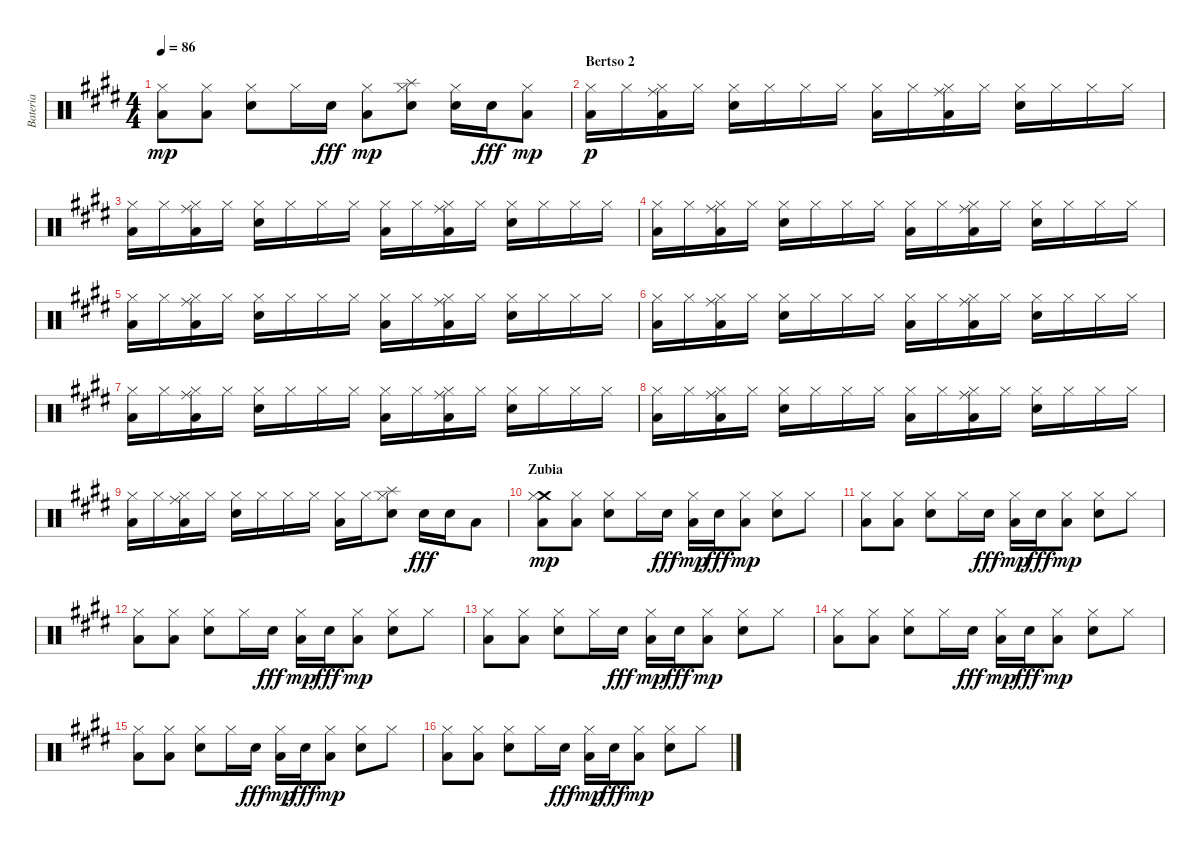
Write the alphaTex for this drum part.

\track ("Bateria" "Bateria") {instrument percussion}
\staff {score}
\articulation defaults
\ts (4 4)
\tempo 86
\clef neutral
\ks e
("Low Floor Tom (hit)" "Hi-Hat (closed)").8{dy mp} ("Low Floor Tom (hit)" "Hi-Hat (closed)").8 ("Electric Snare (hit)" "Hi-Hat (closed)").8 "Hi-Hat (closed)".16 "Electric Snare (hit)".16{dy fff} ("Low Floor Tom (hit)" "Hi-Hat (closed)").8{dy mp} ("Electric Snare (hit)" "Splash (hit)" "Hi-Hat (closed)").8 ("Electric Snare (hit)" "Hi-Hat (closed)").16 "Electric Snare (hit)".16{dy fff} ("Low Floor Tom (hit)" "Hi-Hat (closed)").8{dy mp} |
\section ("" "Bertso 2")
("Low Floor Tom (hit)" "Hi-Hat (closed)").16{dy p} "Hi-Hat (closed)".16 ("Low Floor Tom (hit)" "Ride (middle)" "Hi-Hat (closed)").16 "Hi-Hat (closed)".16 ("Electric Snare (hit)" "Hi-Hat (closed)").16 "Hi-Hat (closed)".16 "Hi-Hat (closed)".16 "Hi-Hat (closed)".16 ("Low Floor Tom (hit)" "Hi-Hat (closed)").16 "Hi-Hat (closed)".16 ("Low Floor Tom (hit)" "Ride (middle)" "Hi-Hat (closed)").16 "Hi-Hat (closed)".16 ("Electric Snare (hit)" "Hi-Hat (closed)").16 "Hi-Hat (closed)".16 "Hi-Hat (closed)".16 "Hi-Hat (closed)".16 |
("Low Floor Tom (hit)" "Hi-Hat (closed)").16 "Hi-Hat (closed)".16 ("Low Floor Tom (hit)" "Ride (middle)" "Hi-Hat (closed)").16 "Hi-Hat (closed)".16 ("Electric Snare (hit)" "Hi-Hat (closed)").16 "Hi-Hat (closed)".16 "Hi-Hat (closed)".16 "Hi-Hat (closed)".16 ("Low Floor Tom (hit)" "Hi-Hat (closed)").16 "Hi-Hat (closed)".16 ("Low Floor Tom (hit)" "Ride (middle)" "Hi-Hat (closed)").16 "Hi-Hat (closed)".16 ("Electric Snare (hit)" "Hi-Hat (closed)").16 "Hi-Hat (closed)".16 "Hi-Hat (closed)".16 "Hi-Hat (closed)".16 |
("Low Floor Tom (hit)" "Hi-Hat (closed)").16 "Hi-Hat (closed)".16 ("Low Floor Tom (hit)" "Ride (middle)" "Hi-Hat (closed)").16 "Hi-Hat (closed)".16 ("Electric Snare (hit)" "Hi-Hat (closed)").16 "Hi-Hat (closed)".16 "Hi-Hat (closed)".16 "Hi-Hat (closed)".16 ("Low Floor Tom (hit)" "Hi-Hat (closed)").16 "Hi-Hat (closed)".16 ("Low Floor Tom (hit)" "Ride (middle)" "Hi-Hat (closed)").16 "Hi-Hat (closed)".16 ("Electric Snare (hit)" "Hi-Hat (closed)").16 "Hi-Hat (closed)".16 "Hi-Hat (closed)".16 "Hi-Hat (closed)".16 |
("Low Floor Tom (hit)" "Hi-Hat (closed)").16 "Hi-Hat (closed)".16 ("Low Floor Tom (hit)" "Ride (middle)" "Hi-Hat (closed)").16 "Hi-Hat (closed)".16 ("Electric Snare (hit)" "Hi-Hat (closed)").16 "Hi-Hat (closed)".16 "Hi-Hat (closed)".16 "Hi-Hat (closed)".16 ("Low Floor Tom (hit)" "Hi-Hat (closed)").16 "Hi-Hat (closed)".16 ("Low Floor Tom (hit)" "Ride (middle)" "Hi-Hat (closed)").16 "Hi-Hat (closed)".16 ("Electric Snare (hit)" "Hi-Hat (closed)").16 "Hi-Hat (closed)".16 "Hi-Hat (closed)".16 "Hi-Hat (closed)".16 |
("Low Floor Tom (hit)" "Hi-Hat (closed)").16 "Hi-Hat (closed)".16 ("Low Floor Tom (hit)" "Ride (middle)" "Hi-Hat (closed)").16 "Hi-Hat (closed)".16 ("Electric Snare (hit)" "Hi-Hat (closed)").16 "Hi-Hat (closed)".16 "Hi-Hat (closed)".16 "Hi-Hat (closed)".16 ("Low Floor Tom (hit)" "Hi-Hat (closed)").16 "Hi-Hat (closed)".16 ("Low Floor Tom (hit)" "Ride (middle)" "Hi-Hat (closed)").16 "Hi-Hat (closed)".16 ("Electric Snare (hit)" "Hi-Hat (closed)").16 "Hi-Hat (closed)".16 "Hi-Hat (closed)".16 "Hi-Hat (closed)".16 |
("Low Floor Tom (hit)" "Hi-Hat (closed)").16 "Hi-Hat (closed)".16 ("Low Floor Tom (hit)" "Ride (middle)" "Hi-Hat (closed)").16 "Hi-Hat (closed)".16 ("Electric Snare (hit)" "Hi-Hat (closed)").16 "Hi-Hat (closed)".16 "Hi-Hat (closed)".16 "Hi-Hat (closed)".16 ("Low Floor Tom (hit)" "Hi-Hat (closed)").16 "Hi-Hat (closed)".16 ("Low Floor Tom (hit)" "Ride (middle)" "Hi-Hat (closed)").16 "Hi-Hat (closed)".16 ("Electric Snare (hit)" "Hi-Hat (closed)").16 "Hi-Hat (closed)".16 "Hi-Hat (closed)".16 "Hi-Hat (closed)".16 |
("Low Floor Tom (hit)" "Hi-Hat (closed)").16 "Hi-Hat (closed)".16 ("Low Floor Tom (hit)" "Ride (middle)" "Hi-Hat (closed)").16 "Hi-Hat (closed)".16 ("Electric Snare (hit)" "Hi-Hat (closed)").16 "Hi-Hat (closed)".16 "Hi-Hat (closed)".16 "Hi-Hat (closed)".16 ("Low Floor Tom (hit)" "Hi-Hat (closed)").16 "Hi-Hat (closed)".16 ("Low Floor Tom (hit)" "Ride (middle)" "Hi-Hat (closed)").16 "Hi-Hat (closed)".16 ("Electric Snare (hit)" "Hi-Hat (closed)").16 "Hi-Hat (closed)".16 "Hi-Hat (closed)".16 "Hi-Hat (closed)".16 |
("Low Floor Tom (hit)" "Hi-Hat (closed)").16 "Hi-Hat (closed)".16 ("Low Floor Tom (hit)" "Ride (middle)" "Hi-Hat (closed)").16 "Hi-Hat (closed)".16 ("Electric Snare (hit)" "Hi-Hat (closed)").16 "Hi-Hat (closed)".16 "Hi-Hat (closed)".16 "Hi-Hat (closed)".16 ("Low Floor Tom (hit)" "Hi-Hat (closed)").16 "Hi-Hat (closed)".16 ("Electric Snare (hit)" "Splash (hit)" "Hi-Hat (closed)").8 "Electric Snare (hit)".16{dy fff} "Electric Snare (hit)".16 "Low Floor Tom (hit)".8 |
\section ("" "Zubia")
("Low Floor Tom (hit)" "Crash medium (hit)" "Hi-Hat (closed)").8{dy mp} ("Low Floor Tom (hit)" "Hi-Hat (closed)").8 ("Electric Snare (hit)" "Hi-Hat (closed)").8 "Hi-Hat (closed)".16 "Electric Snare (hit)".16{dy fff} ("Low Floor Tom (hit)" "Hi-Hat (closed)").16{dy mp} "Electric Snare (hit)".16{dy fff} ("Low Floor Tom (hit)" "Hi-Hat (closed)").8{dy mp} ("Electric Snare (hit)" "Hi-Hat (closed)").8 "Hi-Hat (closed)".8 |
("Low Floor Tom (hit)" "Hi-Hat (closed)").8 ("Low Floor Tom (hit)" "Hi-Hat (closed)").8 ("Electric Snare (hit)" "Hi-Hat (closed)").8 "Hi-Hat (closed)".16 "Electric Snare (hit)".16{dy fff} ("Low Floor Tom (hit)" "Hi-Hat (closed)").16{dy mp} "Electric Snare (hit)".16{dy fff} ("Low Floor Tom (hit)" "Hi-Hat (closed)").8{dy mp} ("Electric Snare (hit)" "Hi-Hat (closed)").8 "Hi-Hat (closed)".8 |
("Low Floor Tom (hit)" "Hi-Hat (closed)").8 ("Low Floor Tom (hit)" "Hi-Hat (closed)").8 ("Electric Snare (hit)" "Hi-Hat (closed)").8 "Hi-Hat (closed)".16 "Electric Snare (hit)".16{dy fff} ("Low Floor Tom (hit)" "Hi-Hat (closed)").16{dy mp} "Electric Snare (hit)".16{dy fff} ("Low Floor Tom (hit)" "Hi-Hat (closed)").8{dy mp} ("Electric Snare (hit)" "Hi-Hat (closed)").8 "Hi-Hat (closed)".8 |
("Low Floor Tom (hit)" "Hi-Hat (closed)").8 ("Low Floor Tom (hit)" "Hi-Hat (closed)").8 ("Electric Snare (hit)" "Hi-Hat (closed)").8 "Hi-Hat (closed)".16 "Electric Snare (hit)".16{dy fff} ("Low Floor Tom (hit)" "Hi-Hat (closed)").16{dy mp} "Electric Snare (hit)".16{dy fff} ("Low Floor Tom (hit)" "Hi-Hat (closed)").8{dy mp} ("Electric Snare (hit)" "Hi-Hat (closed)").8 "Hi-Hat (closed)".8 |
("Low Floor Tom (hit)" "Hi-Hat (closed)").8 ("Low Floor Tom (hit)" "Hi-Hat (closed)").8 ("Electric Snare (hit)" "Hi-Hat (closed)").8 "Hi-Hat (closed)".16 "Electric Snare (hit)".16{dy fff} ("Low Floor Tom (hit)" "Hi-Hat (closed)").16{dy mp} "Electric Snare (hit)".16{dy fff} ("Low Floor Tom (hit)" "Hi-Hat (closed)").8{dy mp} ("Electric Snare (hit)" "Hi-Hat (closed)").8 "Hi-Hat (closed)".8 |
("Low Floor Tom (hit)" "Hi-Hat (closed)").8 ("Low Floor Tom (hit)" "Hi-Hat (closed)").8 ("Electric Snare (hit)" "Hi-Hat (closed)").8 "Hi-Hat (closed)".16 "Electric Snare (hit)".16{dy fff} ("Low Floor Tom (hit)" "Hi-Hat (closed)").16{dy mp} "Electric Snare (hit)".16{dy fff} ("Low Floor Tom (hit)" "Hi-Hat (closed)").8{dy mp} ("Electric Snare (hit)" "Hi-Hat (closed)").8 "Hi-Hat (closed)".8 |
("Low Floor Tom (hit)" "Hi-Hat (closed)").8 ("Low Floor Tom (hit)" "Hi-Hat (closed)").8 ("Electric Snare (hit)" "Hi-Hat (closed)").8 "Hi-Hat (closed)".16 "Electric Snare (hit)".16{dy fff} ("Low Floor Tom (hit)" "Hi-Hat (closed)").16{dy mp} "Electric Snare (hit)".16{dy fff} ("Low Floor Tom (hit)" "Hi-Hat (closed)").8{dy mp} ("Electric Snare (hit)" "Hi-Hat (closed)").8 "Hi-Hat (closed)".8
